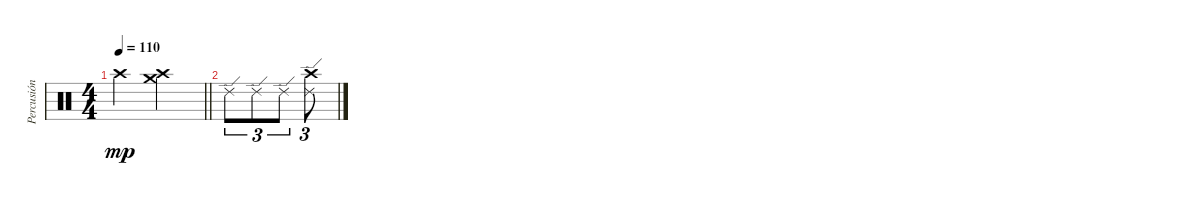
\track ("Percusión" "Percusión") {instrument percussion}
\staff {score}
\articulation defaults
\ts (4 4)
\tempo 110
\clef neutral
\barLineRight lightlight
\ks c "Crash high (hit)".2{dy mp}
("Crash medium (hit)" "Crash high (hit)").2 |
"Ride (edge) 2".8{tu (3 2)} "Ride (edge) 2".8{tu (3 2)} "Ride (edge) 2".8{tu (3 2)} ("Crash high (hit)" "Ride (edge) 2").8{tu (3 2)}
